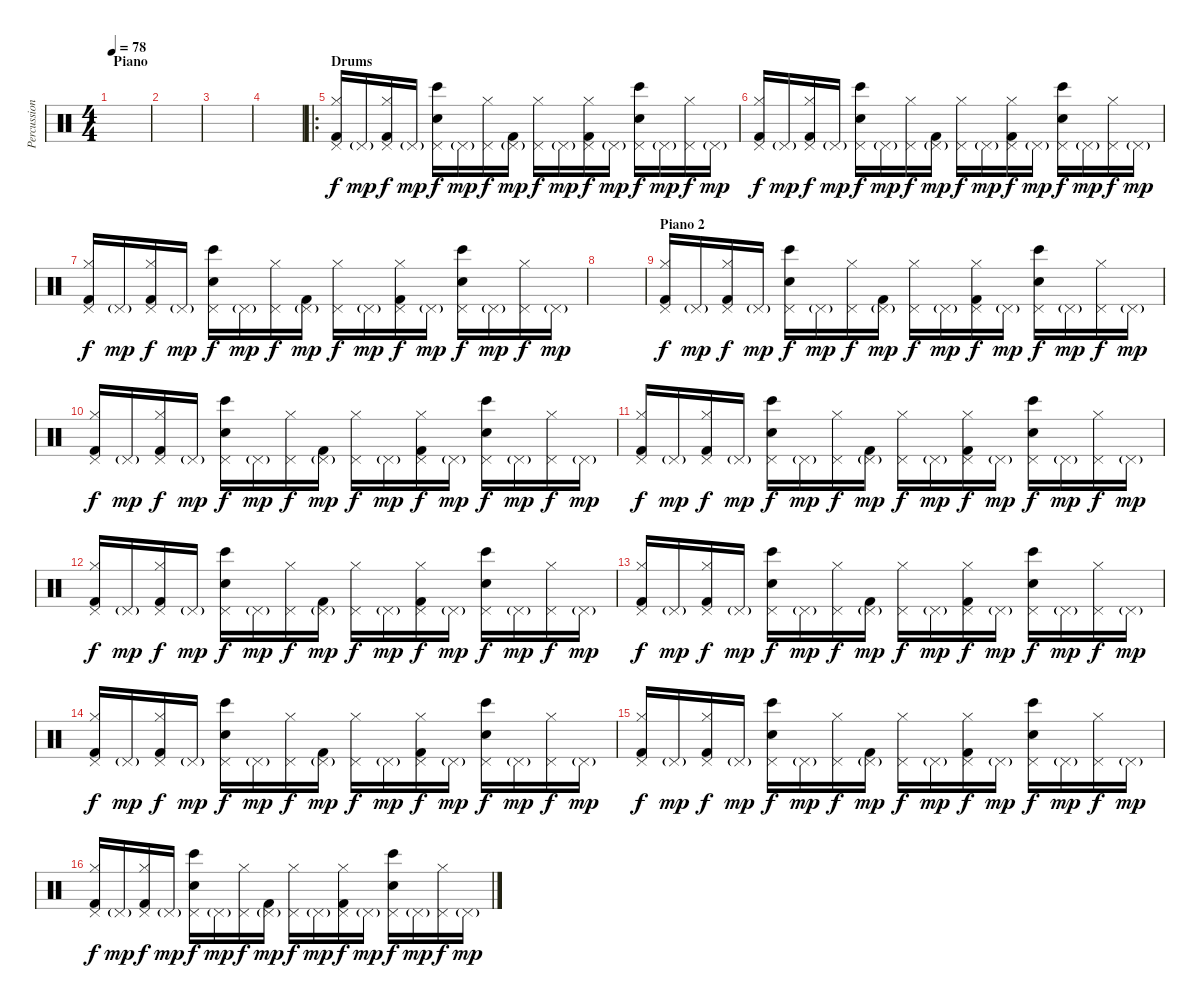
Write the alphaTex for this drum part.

\track ("Percussions" "Percussion") {instrument percussion}
\staff {score}
\articulation defaults
\ts (4 4)
\section ("" "Piano")
\tempo 78
\clef neutral
\ks c
|
|
|
|
\ro
\section ("" "Drums")
("Pedal Hi-Hat (hit)" "Hi-Hat (closed)" "Kick (hit) 2").16 "Pedal Hi-Hat (hit)"{g}.16{dy mp} ("Pedal Hi-Hat (hit)" "Hi-Hat (closed)" "Kick (hit) 2").16{dy f} "Pedal Hi-Hat (hit)"{g}.16{dy mp} ("Pedal Hi-Hat (hit)" "Bongo High (hit)" "Electric Snare (hit)").16{dy f} "Pedal Hi-Hat (hit)"{g}.16{dy mp} ("Pedal Hi-Hat (hit)" "Hi-Hat (closed)").16{dy f} ("Pedal Hi-Hat (hit)"{g} "Kick (hit) 2").16{dy mp} ("Pedal Hi-Hat (hit)" "Hi-Hat (closed)").16{dy f} "Pedal Hi-Hat (hit)"{g}.16{dy mp} ("Pedal Hi-Hat (hit)" "Hi-Hat (closed)" "Kick (hit) 2").16{dy f} "Pedal Hi-Hat (hit)"{g}.16{dy mp} ("Pedal Hi-Hat (hit)" "Bongo High (hit)" "Electric Snare (hit)").16{dy f} "Pedal Hi-Hat (hit)"{g}.16{dy mp} ("Pedal Hi-Hat (hit)" "Hi-Hat (closed)").16{dy f} "Pedal Hi-Hat (hit)"{g}.16{dy mp} |
("Pedal Hi-Hat (hit)" "Hi-Hat (closed)" "Kick (hit) 2").16{dy f} "Pedal Hi-Hat (hit)"{g}.16{dy mp} ("Pedal Hi-Hat (hit)" "Hi-Hat (closed)" "Kick (hit) 2").16{dy f} "Pedal Hi-Hat (hit)"{g}.16{dy mp} ("Pedal Hi-Hat (hit)" "Bongo High (hit)" "Electric Snare (hit)").16{dy f} "Pedal Hi-Hat (hit)"{g}.16{dy mp} ("Pedal Hi-Hat (hit)" "Hi-Hat (closed)").16{dy f} ("Pedal Hi-Hat (hit)"{g} "Kick (hit) 2").16{dy mp} ("Pedal Hi-Hat (hit)" "Hi-Hat (closed)").16{dy f} "Pedal Hi-Hat (hit)"{g}.16{dy mp} ("Pedal Hi-Hat (hit)" "Hi-Hat (closed)" "Kick (hit) 2").16{dy f} "Pedal Hi-Hat (hit)"{g}.16{dy mp} ("Pedal Hi-Hat (hit)" "Bongo High (hit)" "Electric Snare (hit)").16{dy f} "Pedal Hi-Hat (hit)"{g}.16{dy mp} ("Pedal Hi-Hat (hit)" "Hi-Hat (closed)").16{dy f} "Pedal Hi-Hat (hit)"{g}.16{dy mp} |
("Pedal Hi-Hat (hit)" "Hi-Hat (closed)" "Kick (hit) 2").16{dy f} "Pedal Hi-Hat (hit)"{g}.16{dy mp} ("Pedal Hi-Hat (hit)" "Hi-Hat (closed)" "Kick (hit) 2").16{dy f} "Pedal Hi-Hat (hit)"{g}.16{dy mp} ("Pedal Hi-Hat (hit)" "Bongo High (hit)" "Electric Snare (hit)").16{dy f} "Pedal Hi-Hat (hit)"{g}.16{dy mp} ("Pedal Hi-Hat (hit)" "Hi-Hat (closed)").16{dy f} ("Pedal Hi-Hat (hit)"{g} "Kick (hit) 2").16{dy mp} ("Pedal Hi-Hat (hit)" "Hi-Hat (closed)").16{dy f} "Pedal Hi-Hat (hit)"{g}.16{dy mp} ("Pedal Hi-Hat (hit)" "Hi-Hat (closed)" "Kick (hit) 2").16{dy f} "Pedal Hi-Hat (hit)"{g}.16{dy mp} ("Pedal Hi-Hat (hit)" "Bongo High (hit)" "Electric Snare (hit)").16{dy f} "Pedal Hi-Hat (hit)"{g}.16{dy mp} ("Pedal Hi-Hat (hit)" "Hi-Hat (closed)").16{dy f} "Pedal Hi-Hat (hit)"{g}.16{dy mp} |
|
\section ("" "Piano 2")
("Pedal Hi-Hat (hit)" "Hi-Hat (closed)" "Kick (hit) 2").16{dy f} "Pedal Hi-Hat (hit)"{g}.16{dy mp} ("Pedal Hi-Hat (hit)" "Hi-Hat (closed)" "Kick (hit) 2").16{dy f} "Pedal Hi-Hat (hit)"{g}.16{dy mp} ("Pedal Hi-Hat (hit)" "Bongo High (hit)" "Electric Snare (hit)").16{dy f} "Pedal Hi-Hat (hit)"{g}.16{dy mp} ("Pedal Hi-Hat (hit)" "Hi-Hat (closed)").16{dy f} ("Pedal Hi-Hat (hit)"{g} "Kick (hit) 2").16{dy mp} ("Pedal Hi-Hat (hit)" "Hi-Hat (closed)").16{dy f} "Pedal Hi-Hat (hit)"{g}.16{dy mp} ("Pedal Hi-Hat (hit)" "Hi-Hat (closed)" "Kick (hit) 2").16{dy f} "Pedal Hi-Hat (hit)"{g}.16{dy mp} ("Pedal Hi-Hat (hit)" "Bongo High (hit)" "Electric Snare (hit)").16{dy f} "Pedal Hi-Hat (hit)"{g}.16{dy mp} ("Pedal Hi-Hat (hit)" "Hi-Hat (closed)").16{dy f} "Pedal Hi-Hat (hit)"{g}.16{dy mp} |
("Pedal Hi-Hat (hit)" "Hi-Hat (closed)" "Kick (hit) 2").16{dy f} "Pedal Hi-Hat (hit)"{g}.16{dy mp} ("Pedal Hi-Hat (hit)" "Hi-Hat (closed)" "Kick (hit) 2").16{dy f} "Pedal Hi-Hat (hit)"{g}.16{dy mp} ("Pedal Hi-Hat (hit)" "Bongo High (hit)" "Electric Snare (hit)").16{dy f} "Pedal Hi-Hat (hit)"{g}.16{dy mp} ("Pedal Hi-Hat (hit)" "Hi-Hat (closed)").16{dy f} ("Pedal Hi-Hat (hit)"{g} "Kick (hit) 2").16{dy mp} ("Pedal Hi-Hat (hit)" "Hi-Hat (closed)").16{dy f} "Pedal Hi-Hat (hit)"{g}.16{dy mp} ("Pedal Hi-Hat (hit)" "Hi-Hat (closed)" "Kick (hit) 2").16{dy f} "Pedal Hi-Hat (hit)"{g}.16{dy mp} ("Pedal Hi-Hat (hit)" "Bongo High (hit)" "Electric Snare (hit)").16{dy f} "Pedal Hi-Hat (hit)"{g}.16{dy mp} ("Pedal Hi-Hat (hit)" "Hi-Hat (closed)").16{dy f} "Pedal Hi-Hat (hit)"{g}.16{dy mp} |
("Pedal Hi-Hat (hit)" "Hi-Hat (closed)" "Kick (hit) 2").16{dy f} "Pedal Hi-Hat (hit)"{g}.16{dy mp} ("Pedal Hi-Hat (hit)" "Hi-Hat (closed)" "Kick (hit) 2").16{dy f} "Pedal Hi-Hat (hit)"{g}.16{dy mp} ("Pedal Hi-Hat (hit)" "Bongo High (hit)" "Electric Snare (hit)").16{dy f} "Pedal Hi-Hat (hit)"{g}.16{dy mp} ("Pedal Hi-Hat (hit)" "Hi-Hat (closed)").16{dy f} ("Pedal Hi-Hat (hit)"{g} "Kick (hit) 2").16{dy mp} ("Pedal Hi-Hat (hit)" "Hi-Hat (closed)").16{dy f} "Pedal Hi-Hat (hit)"{g}.16{dy mp} ("Pedal Hi-Hat (hit)" "Hi-Hat (closed)" "Kick (hit) 2").16{dy f} "Pedal Hi-Hat (hit)"{g}.16{dy mp} ("Pedal Hi-Hat (hit)" "Bongo High (hit)" "Electric Snare (hit)").16{dy f} "Pedal Hi-Hat (hit)"{g}.16{dy mp} ("Pedal Hi-Hat (hit)" "Hi-Hat (closed)").16{dy f} "Pedal Hi-Hat (hit)"{g}.16{dy mp} |
("Pedal Hi-Hat (hit)" "Hi-Hat (closed)" "Kick (hit) 2").16{dy f} "Pedal Hi-Hat (hit)"{g}.16{dy mp} ("Pedal Hi-Hat (hit)" "Hi-Hat (closed)" "Kick (hit) 2").16{dy f} "Pedal Hi-Hat (hit)"{g}.16{dy mp} ("Pedal Hi-Hat (hit)" "Bongo High (hit)" "Electric Snare (hit)").16{dy f} "Pedal Hi-Hat (hit)"{g}.16{dy mp} ("Pedal Hi-Hat (hit)" "Hi-Hat (closed)").16{dy f} ("Pedal Hi-Hat (hit)"{g} "Kick (hit) 2").16{dy mp} ("Pedal Hi-Hat (hit)" "Hi-Hat (closed)").16{dy f} "Pedal Hi-Hat (hit)"{g}.16{dy mp} ("Pedal Hi-Hat (hit)" "Hi-Hat (closed)" "Kick (hit) 2").16{dy f} "Pedal Hi-Hat (hit)"{g}.16{dy mp} ("Pedal Hi-Hat (hit)" "Bongo High (hit)" "Electric Snare (hit)").16{dy f} "Pedal Hi-Hat (hit)"{g}.16{dy mp} ("Pedal Hi-Hat (hit)" "Hi-Hat (closed)").16{dy f} "Pedal Hi-Hat (hit)"{g}.16{dy mp} |
("Pedal Hi-Hat (hit)" "Hi-Hat (closed)" "Kick (hit) 2").16{dy f} "Pedal Hi-Hat (hit)"{g}.16{dy mp} ("Pedal Hi-Hat (hit)" "Hi-Hat (closed)" "Kick (hit) 2").16{dy f} "Pedal Hi-Hat (hit)"{g}.16{dy mp} ("Pedal Hi-Hat (hit)" "Bongo High (hit)" "Electric Snare (hit)").16{dy f} "Pedal Hi-Hat (hit)"{g}.16{dy mp} ("Pedal Hi-Hat (hit)" "Hi-Hat (closed)").16{dy f} ("Pedal Hi-Hat (hit)"{g} "Kick (hit) 2").16{dy mp} ("Pedal Hi-Hat (hit)" "Hi-Hat (closed)").16{dy f} "Pedal Hi-Hat (hit)"{g}.16{dy mp} ("Pedal Hi-Hat (hit)" "Hi-Hat (closed)" "Kick (hit) 2").16{dy f} "Pedal Hi-Hat (hit)"{g}.16{dy mp} ("Pedal Hi-Hat (hit)" "Bongo High (hit)" "Electric Snare (hit)").16{dy f} "Pedal Hi-Hat (hit)"{g}.16{dy mp} ("Pedal Hi-Hat (hit)" "Hi-Hat (closed)").16{dy f} "Pedal Hi-Hat (hit)"{g}.16{dy mp} |
("Pedal Hi-Hat (hit)" "Hi-Hat (closed)" "Kick (hit) 2").16{dy f} "Pedal Hi-Hat (hit)"{g}.16{dy mp} ("Pedal Hi-Hat (hit)" "Hi-Hat (closed)" "Kick (hit) 2").16{dy f} "Pedal Hi-Hat (hit)"{g}.16{dy mp} ("Pedal Hi-Hat (hit)" "Bongo High (hit)" "Electric Snare (hit)").16{dy f} "Pedal Hi-Hat (hit)"{g}.16{dy mp} ("Pedal Hi-Hat (hit)" "Hi-Hat (closed)").16{dy f} ("Pedal Hi-Hat (hit)"{g} "Kick (hit) 2").16{dy mp} ("Pedal Hi-Hat (hit)" "Hi-Hat (closed)").16{dy f} "Pedal Hi-Hat (hit)"{g}.16{dy mp} ("Pedal Hi-Hat (hit)" "Hi-Hat (closed)" "Kick (hit) 2").16{dy f} "Pedal Hi-Hat (hit)"{g}.16{dy mp} ("Pedal Hi-Hat (hit)" "Bongo High (hit)" "Electric Snare (hit)").16{dy f} "Pedal Hi-Hat (hit)"{g}.16{dy mp} ("Pedal Hi-Hat (hit)" "Hi-Hat (closed)").16{dy f} "Pedal Hi-Hat (hit)"{g}.16{dy mp} |
("Pedal Hi-Hat (hit)" "Hi-Hat (closed)" "Kick (hit) 2").16{dy f} "Pedal Hi-Hat (hit)"{g}.16{dy mp} ("Pedal Hi-Hat (hit)" "Hi-Hat (closed)" "Kick (hit) 2").16{dy f} "Pedal Hi-Hat (hit)"{g}.16{dy mp} ("Pedal Hi-Hat (hit)" "Bongo High (hit)" "Electric Snare (hit)").16{dy f} "Pedal Hi-Hat (hit)"{g}.16{dy mp} ("Pedal Hi-Hat (hit)" "Hi-Hat (closed)").16{dy f} ("Pedal Hi-Hat (hit)"{g} "Kick (hit) 2").16{dy mp} ("Pedal Hi-Hat (hit)" "Hi-Hat (closed)").16{dy f} "Pedal Hi-Hat (hit)"{g}.16{dy mp} ("Pedal Hi-Hat (hit)" "Hi-Hat (closed)" "Kick (hit) 2").16{dy f} "Pedal Hi-Hat (hit)"{g}.16{dy mp} ("Pedal Hi-Hat (hit)" "Bongo High (hit)" "Electric Snare (hit)").16{dy f} "Pedal Hi-Hat (hit)"{g}.16{dy mp} ("Pedal Hi-Hat (hit)" "Hi-Hat (closed)").16{dy f} "Pedal Hi-Hat (hit)"{g}.16{dy mp} |
("Pedal Hi-Hat (hit)" "Hi-Hat (closed)" "Kick (hit) 2").16{dy f} "Pedal Hi-Hat (hit)"{g}.16{dy mp} ("Pedal Hi-Hat (hit)" "Hi-Hat (closed)" "Kick (hit) 2").16{dy f} "Pedal Hi-Hat (hit)"{g}.16{dy mp} ("Pedal Hi-Hat (hit)" "Bongo High (hit)" "Electric Snare (hit)").16{dy f} "Pedal Hi-Hat (hit)"{g}.16{dy mp} ("Pedal Hi-Hat (hit)" "Hi-Hat (closed)").16{dy f} ("Pedal Hi-Hat (hit)"{g} "Kick (hit) 2").16{dy mp} ("Pedal Hi-Hat (hit)" "Hi-Hat (closed)").16{dy f} "Pedal Hi-Hat (hit)"{g}.16{dy mp} ("Pedal Hi-Hat (hit)" "Hi-Hat (closed)" "Kick (hit) 2").16{dy f} "Pedal Hi-Hat (hit)"{g}.16{dy mp} ("Pedal Hi-Hat (hit)" "Bongo High (hit)" "Electric Snare (hit)").16{dy f} "Pedal Hi-Hat (hit)"{g}.16{dy mp} ("Pedal Hi-Hat (hit)" "Hi-Hat (closed)").16{dy f} "Pedal Hi-Hat (hit)"{g}.16{dy mp}
